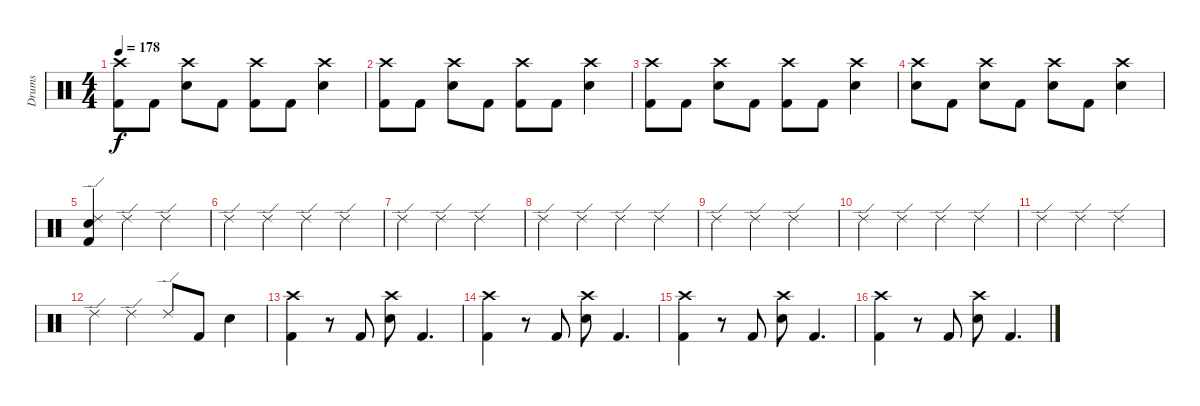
\track ("Drums" "Drums") {instrument percussion}
\staff {score}
\articulation defaults
\ts (4 4)
\tempo 178
\clef neutral
\ks c
("Crash high (hit)" "Kick (hit) 2").8{dy f} "Kick (hit) 2".8 ("Crash high (hit)" "Electric Snare (hit)").8 "Kick (hit) 2".8 ("Crash high (hit)" "Kick (hit) 2").8 "Kick (hit) 2".8 ("Crash high (hit)" "Electric Snare (hit)").4 |
("Crash high (hit)" "Kick (hit) 2").8 "Kick (hit) 2".8 ("Crash high (hit)" "Electric Snare (hit)").8 "Kick (hit) 2".8 ("Crash high (hit)" "Kick (hit) 2").8 "Kick (hit) 2".8 ("Crash high (hit)" "Electric Snare (hit)").4 |
("Crash high (hit)" "Kick (hit) 2").8 "Kick (hit) 2".8 ("Crash high (hit)" "Electric Snare (hit)").8 "Kick (hit) 2".8 ("Crash high (hit)" "Kick (hit) 2").8 "Kick (hit) 2".8 ("Crash high (hit)" "Electric Snare (hit)").4 |
("Crash high (hit)" "Electric Snare (hit)").8 "Kick (hit) 2".8 ("Crash high (hit)" "Electric Snare (hit)").8 "Kick (hit) 2".8 ("Crash high (hit)" "Electric Snare (hit)").8 "Kick (hit) 2".8 ("Crash high (hit)" "Electric Snare (hit)").4 |
("Ride (edge) 2" "Electric Snare (hit)" "Kick (hit) 2").4 "Ride (edge) 2".4 "Ride (edge) 2".2 |
"Ride (edge) 2".4 "Ride (edge) 2".4 "Ride (edge) 2".4 "Ride (edge) 2".4 |
"Ride (edge) 2".4 "Ride (edge) 2".4 "Ride (edge) 2".2 |
"Ride (edge) 2".4 "Ride (edge) 2".4 "Ride (edge) 2".4 "Ride (edge) 2".4 |
"Ride (edge) 2".4 "Ride (edge) 2".4 "Ride (edge) 2".2 |
"Ride (edge) 2".4 "Ride (edge) 2".4 "Ride (edge) 2".4 "Ride (edge) 2".4 |
"Ride (edge) 2".4 "Ride (edge) 2".4 "Ride (edge) 2".2 |
"Ride (edge) 2".4 "Ride (edge) 2".4 "Ride (edge) 2".8 "Kick (hit) 2".8 "Electric Snare (hit)".4 |
("Crash high (hit)" "Kick (hit) 2").4 r.8 "Kick (hit) 2".8 ("Crash high (hit)" "Electric Snare (hit)").8 "Kick (hit) 2".4{d} |
("Crash high (hit)" "Kick (hit) 2").4 r.8 "Kick (hit) 2".8 ("Crash high (hit)" "Electric Snare (hit)").8 "Kick (hit) 2".4{d} |
("Crash high (hit)" "Kick (hit) 2").4 r.8 "Kick (hit) 2".8 ("Crash high (hit)" "Electric Snare (hit)").8 "Kick (hit) 2".4{d} |
("Crash high (hit)" "Kick (hit) 2").4 r.8 "Kick (hit) 2".8 ("Crash high (hit)" "Electric Snare (hit)").8 "Kick (hit) 2".4{d}
